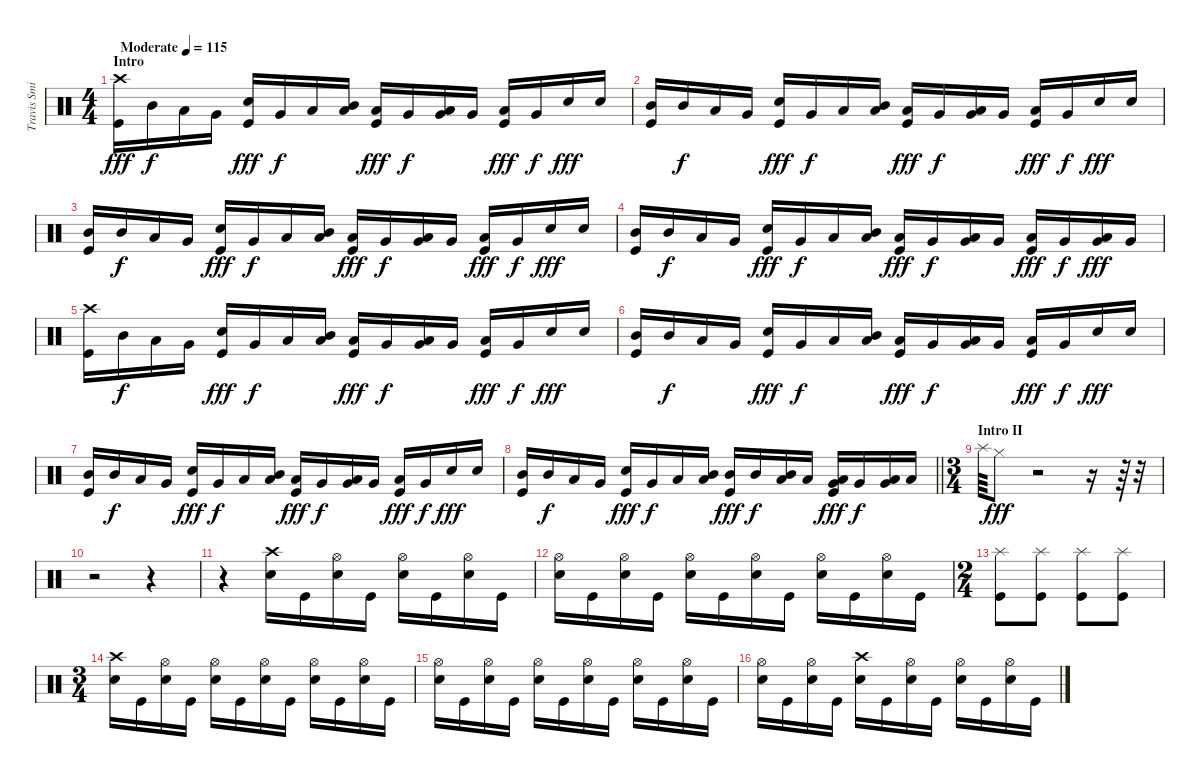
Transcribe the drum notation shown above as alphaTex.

\track ("Travis Smith" "Travis Smi") {instrument percussion}
\staff {score}
\articulation defaults
\ts (4 4)
\section ("" "Intro")
\tempo (115 "Moderate")
\clef neutral
\ks c
("Crash high (hit)" "Kick (hit)").16{dy fff} "Mid Tom (hit)".16{dy f} "Low Tom (hit)".16 "Very Low Tom (hit)".16 ("Snare (hit) 2" "Kick (hit)").16{dy fff} "Very Low Tom (hit)".16{dy f} "Low Tom (hit)".16 ("Mid Tom (hit)" "Low Tom (hit)").16 ("Low Tom (hit)" "Kick (hit)").16{dy fff} "Very Low Tom (hit)".16{dy f} ("Low Tom (hit)" "Very Low Tom (hit)").16 "Very Low Tom (hit)".16 ("Low Tom (hit)" "Kick (hit)").16{dy fff} "Very Low Tom (hit)".16{dy f} "Snare (hit) 2".16{dy fff} "Snare (hit) 2".16 |
("Mid Tom (hit)" "Kick (hit)").16 "Mid Tom (hit)".16{dy f} "Low Tom (hit)".16 "Very Low Tom (hit)".16 ("Snare (hit) 2" "Kick (hit)").16{dy fff} "Very Low Tom (hit)".16{dy f} "Low Tom (hit)".16 ("Mid Tom (hit)" "Low Tom (hit)").16 ("Low Tom (hit)" "Kick (hit)").16{dy fff} "Very Low Tom (hit)".16{dy f} ("Low Tom (hit)" "Very Low Tom (hit)").16 "Very Low Tom (hit)".16 ("Low Tom (hit)" "Kick (hit)").16{dy fff} "Very Low Tom (hit)".16{dy f} "Snare (hit) 2".16{dy fff} "Snare (hit) 2".16 |
("Mid Tom (hit)" "Kick (hit)").16 "Mid Tom (hit)".16{dy f} "Low Tom (hit)".16 "Very Low Tom (hit)".16 ("Snare (hit) 2" "Kick (hit)").16{dy fff} "Very Low Tom (hit)".16{dy f} "Low Tom (hit)".16 ("Mid Tom (hit)" "Low Tom (hit)").16 ("Low Tom (hit)" "Kick (hit)").16{dy fff} "Very Low Tom (hit)".16{dy f} ("Low Tom (hit)" "Very Low Tom (hit)").16 "Very Low Tom (hit)".16 ("Low Tom (hit)" "Kick (hit)").16{dy fff} "Very Low Tom (hit)".16{dy f} "Snare (hit) 2".16{dy fff} "Snare (hit) 2".16 |
("Mid Tom (hit)" "Kick (hit)").16 "Mid Tom (hit)".16{dy f} "Low Tom (hit)".16 "Very Low Tom (hit)".16 ("Snare (hit) 2" "Kick (hit)").16{dy fff} "Very Low Tom (hit)".16{dy f} "Low Tom (hit)".16 ("Mid Tom (hit)" "Low Tom (hit)").16 ("Low Tom (hit)" "Kick (hit)").16{dy fff} "Very Low Tom (hit)".16{dy f} ("Low Tom (hit)" "Very Low Tom (hit)").16 "Very Low Tom (hit)".16 ("Low Tom (hit)" "Kick (hit)").16{dy fff} "Very Low Tom (hit)".16{dy f} ("Low Tom (hit)" "Very Low Tom (hit)").16{dy fff} "Very Low Tom (hit)".16 |
("Crash high (hit)" "Kick (hit)").16 "Mid Tom (hit)".16{dy f} "Low Tom (hit)".16 "Very Low Tom (hit)".16 ("Snare (hit) 2" "Kick (hit)").16{dy fff} "Very Low Tom (hit)".16{dy f} "Low Tom (hit)".16 ("Mid Tom (hit)" "Low Tom (hit)").16 ("Low Tom (hit)" "Kick (hit)").16{dy fff} "Very Low Tom (hit)".16{dy f} ("Low Tom (hit)" "Very Low Tom (hit)").16 "Very Low Tom (hit)".16 ("Low Tom (hit)" "Kick (hit)").16{dy fff} "Very Low Tom (hit)".16{dy f} "Snare (hit) 2".16{dy fff} "Snare (hit) 2".16 |
("Mid Tom (hit)" "Kick (hit)").16 "Mid Tom (hit)".16{dy f} "Low Tom (hit)".16 "Very Low Tom (hit)".16 ("Snare (hit) 2" "Kick (hit)").16{dy fff} "Very Low Tom (hit)".16{dy f} "Low Tom (hit)".16 ("Mid Tom (hit)" "Low Tom (hit)").16 ("Low Tom (hit)" "Kick (hit)").16{dy fff} "Very Low Tom (hit)".16{dy f} ("Low Tom (hit)" "Very Low Tom (hit)").16 "Very Low Tom (hit)".16 ("Low Tom (hit)" "Kick (hit)").16{dy fff} "Very Low Tom (hit)".16{dy f} "Snare (hit) 2".16{dy fff} "Snare (hit) 2".16 |
("Mid Tom (hit)" "Kick (hit)").16 "Mid Tom (hit)".16{dy f} "Low Tom (hit)".16 "Very Low Tom (hit)".16 ("Snare (hit) 2" "Kick (hit)").16{dy fff} "Very Low Tom (hit)".16{dy f} "Low Tom (hit)".16 ("Mid Tom (hit)" "Low Tom (hit)").16 ("Low Tom (hit)" "Kick (hit)").16{dy fff} "Very Low Tom (hit)".16{dy f} ("Low Tom (hit)" "Very Low Tom (hit)").16 "Very Low Tom (hit)".16 ("Low Tom (hit)" "Kick (hit)").16{dy fff} "Very Low Tom (hit)".16{dy f} "Snare (hit) 2".16{dy fff} "Snare (hit) 2".16 |
\barLineRight lightlight
("Mid Tom (hit)" "Kick (hit)").16 "Mid Tom (hit)".16{dy f} "Low Tom (hit)".16 "Very Low Tom (hit)".16 ("Snare (hit) 2" "Kick (hit)").16{dy fff} "Very Low Tom (hit)".16{dy f} "Low Tom (hit)".16 ("Mid Tom (hit)" "Low Tom (hit)").16 ("Mid Tom (hit)" "Kick (hit)").16{dy fff} "Mid Tom (hit)".16{dy f} ("Mid Tom (hit)" "Low Tom (hit)").16 "Low Tom (hit)".16 ("Low Tom (hit)" "Very Low Tom (hit)" "Kick (hit)").16{dy fff} "Very Low Tom (hit)".16{dy f} ("Very Low Tom (hit)" "Low Floor Tom (hit)").16 "Low Floor Tom (hit)".16 |
\ts (3 4)
\section ("" "Intro II")
"Splash (hit)".64 "Hi-Hat (closed)".8{dy fff} r.2 r.16 r.64 r.32 |
r.2 r.4 |
r.4 ("Crash high (hit)" "Snare (hit) 2").16 "Kick (hit)".16 ("Hi-Hat (open)" "Snare (hit) 2").16 "Kick (hit)".16 ("Hi-Hat (open)" "Snare (hit) 2").16 "Kick (hit)".16 ("Hi-Hat (open)" "Snare (hit) 2").16 "Kick (hit)".16 |
("Hi-Hat (open)" "Snare (hit) 2").16 "Kick (hit)".16 ("Hi-Hat (open)" "Snare (hit) 2").16 "Kick (hit)".16 ("Hi-Hat (open)" "Snare (hit) 2").16 "Kick (hit)".16 ("Hi-Hat (open)" "Snare (hit) 2").16 "Kick (hit)".16 ("Hi-Hat (open)" "Snare (hit) 2").16 "Kick (hit)".16 ("Hi-Hat (open)" "Snare (hit) 2").16 "Kick (hit)".16 |
\ts (2 4)
("Splash (hit)" "Kick (hit)").8 ("Splash (hit)" "Kick (hit)").8 ("Splash (hit)" "Kick (hit)").8 ("Splash (hit)" "Kick (hit)").8 |
\ts (3 4)
("Crash high (hit)" "Snare (hit) 2").16 "Kick (hit)".16 ("Hi-Hat (open)" "Snare (hit) 2").16 "Kick (hit)".16 ("Hi-Hat (open)" "Snare (hit) 2").16 "Kick (hit)".16 ("Hi-Hat (open)" "Snare (hit) 2").16 "Kick (hit)".16 ("Hi-Hat (open)" "Snare (hit) 2").16 "Kick (hit)".16 ("Hi-Hat (open)" "Snare (hit) 2").16 "Kick (hit)".16 |
("Hi-Hat (open)" "Snare (hit) 2").16 "Kick (hit)".16 ("Hi-Hat (open)" "Snare (hit) 2").16 "Kick (hit)".16 ("Hi-Hat (open)" "Snare (hit) 2").16 "Kick (hit)".16 ("Hi-Hat (open)" "Snare (hit) 2").16 "Kick (hit)".16 ("Hi-Hat (open)" "Snare (hit) 2").16 "Kick (hit)".16 ("Hi-Hat (open)" "Snare (hit) 2").16 "Kick (hit)".16 |
("Hi-Hat (open)" "Snare (hit) 2").16 "Kick (hit)".16 ("Hi-Hat (open)" "Snare (hit) 2").16 "Kick (hit)".16 ("Crash high (hit)" "Snare (hit) 2").16 "Kick (hit)".16 ("Hi-Hat (open)" "Snare (hit) 2").16 "Kick (hit)".16 ("Hi-Hat (open)" "Snare (hit) 2").16 "Kick (hit)".16 ("Hi-Hat (open)" "Snare (hit) 2").16 "Kick (hit)".16
